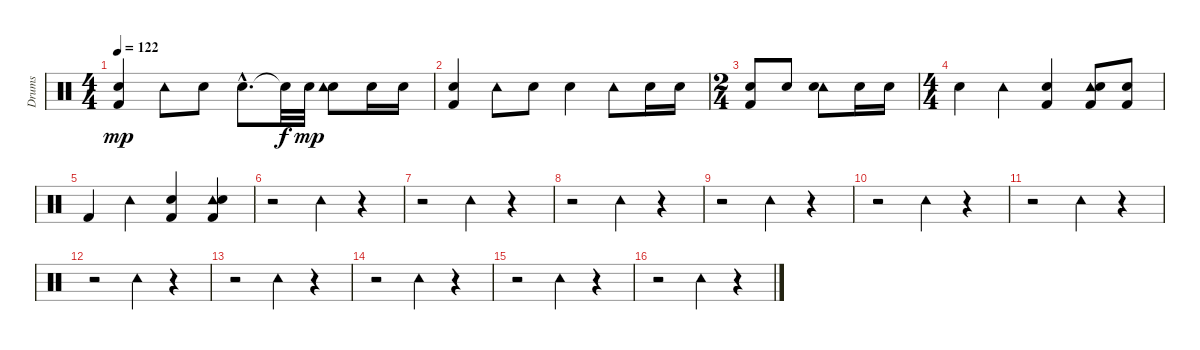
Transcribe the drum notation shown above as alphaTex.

\track ("Drums" "Drums") {instrument percussion}
\staff {score}
\articulation defaults
\ts (4 4)
\tempo 122
\clef neutral
\ks c
("Kick (hit) 2" "Snare (hit) 2").4{dy mp} "Tambourine (hit)".8 "Snare (hit) 2".8 "Snare (hit) 2"{hac}.8{d} "Snare (hit)"{t}.32{dy f} "Hand Clap (hit)".32{dy mp} ("Hand Clap (hit)" "Tambourine (hit)").8 "Snare (hit) 2".16 "Snare (hit) 2".16 |
("Kick (hit) 2" "Snare (hit) 2").4 "Tambourine (hit)".8 "Snare (hit) 2".8 "Snare (hit) 2".4 "Tambourine (hit)".8 "Snare (hit) 2".16 "Snare (hit) 2".16 |
\ts (2 4)
("Kick (hit) 2" "Snare (hit) 2").8 "Snare (hit) 2".8 ("Tambourine (hit)" "Snare (hit) 2").8 "Snare (hit) 2".16 "Snare (hit) 2".16 |
\ts (4 4)
"Snare (hit) 2".4 "Tambourine (hit)".4 ("Kick (hit) 2" "Snare (hit) 2").4 ("Tambourine (hit)" "Kick (hit) 2" "Snare (hit) 2").8 ("Kick (hit) 2" "Snare (hit) 2").8 |
"Kick (hit) 2".4 "Tambourine (hit)".4 ("Kick (hit) 2" "Snare (hit) 2").4 ("Tambourine (hit)" "Kick (hit) 2" "Snare (hit) 2").4 |
r.2 "Tambourine (hit)".4 r.4 |
r.2 "Tambourine (hit)".4 r.4 |
r.2 "Tambourine (hit)".4 r.4 |
r.2 "Tambourine (hit)".4 r.4 |
r.2 "Tambourine (hit)".4 r.4 |
r.2 "Tambourine (hit)".4 r.4 |
r.2 "Tambourine (hit)".4 r.4 |
r.2 "Tambourine (hit)".4 r.4 |
r.2 "Tambourine (hit)".4 r.4 |
r.2 "Tambourine (hit)".4 r.4 |
r.2 "Tambourine (hit)".4 r.4
